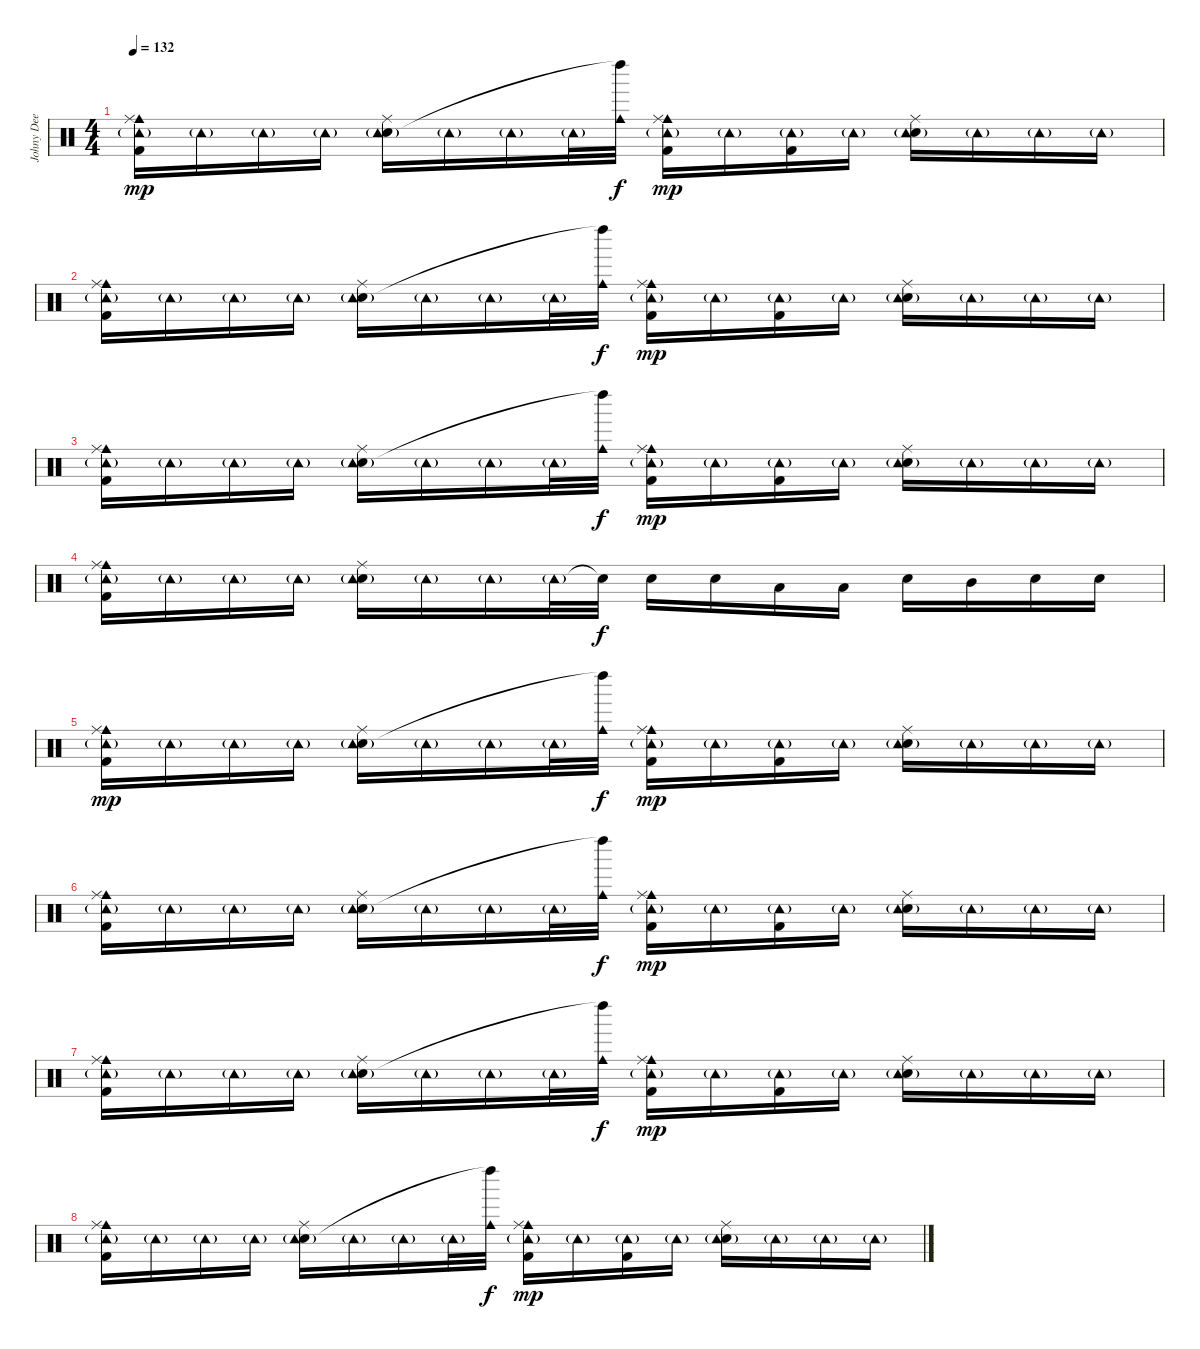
\track ("Johny Dee" "Johny Dee") {instrument percussion}
\staff {score}
\articulation defaults
\ts (4 4)
\tempo 132
\clef neutral
\ks c
("Cowbell medium (hit)" "Ride (middle)" "Tambourine (hit)"{g} "Kick (hit) 2").16{dy mp} "Tambourine (hit)"{g}.16 "Tambourine (hit)"{g}.16 "Tambourine (hit)"{g}.16 ("Ride (middle)" "Snare (hit) 2" "Tambourine (hit)"{g}).16 "Tambourine (hit)"{g}.16 "Tambourine (hit)"{g}.16 "Tambourine (hit)"{g}.32 ("Cowbell medium (hit)" "Left Maraca (hit)"{t}).32{dy f} ("Cowbell medium (hit)" "Ride (middle)" "Tambourine (hit)"{g} "Kick (hit) 2").16{dy mp} "Tambourine (hit)"{g}.16 ("Tambourine (hit)"{g} "Kick (hit) 2").16 "Tambourine (hit)"{g}.16 ("Ride (middle)" "Snare (hit) 2" "Tambourine (hit)"{g}).16 "Tambourine (hit)"{g}.16 "Tambourine (hit)"{g}.16 "Tambourine (hit)"{g}.16 |
("Cowbell medium (hit)" "Ride (middle)" "Tambourine (hit)"{g} "Kick (hit) 2").16 "Tambourine (hit)"{g}.16 "Tambourine (hit)"{g}.16 "Tambourine (hit)"{g}.16 ("Ride (middle)" "Snare (hit) 2" "Tambourine (hit)"{g}).16 "Tambourine (hit)"{g}.16 "Tambourine (hit)"{g}.16 "Tambourine (hit)"{g}.32 ("Cowbell medium (hit)" "Left Maraca (hit)"{t}).32{dy f} ("Cowbell medium (hit)" "Ride (middle)" "Tambourine (hit)"{g} "Kick (hit) 2").16{dy mp} "Tambourine (hit)"{g}.16 ("Tambourine (hit)"{g} "Kick (hit) 2").16 "Tambourine (hit)"{g}.16 ("Ride (middle)" "Snare (hit) 2" "Tambourine (hit)"{g}).16 "Tambourine (hit)"{g}.16 "Tambourine (hit)"{g}.16 "Tambourine (hit)"{g}.16 |
("Cowbell medium (hit)" "Ride (middle)" "Tambourine (hit)"{g} "Kick (hit) 2").16 "Tambourine (hit)"{g}.16 "Tambourine (hit)"{g}.16 "Tambourine (hit)"{g}.16 ("Ride (middle)" "Snare (hit) 2" "Tambourine (hit)"{g}).16 "Tambourine (hit)"{g}.16 "Tambourine (hit)"{g}.16 "Tambourine (hit)"{g}.32 ("Cowbell medium (hit)" "Left Maraca (hit)"{t}).32{dy f} ("Cowbell medium (hit)" "Ride (middle)" "Tambourine (hit)"{g} "Kick (hit) 2").16{dy mp} "Tambourine (hit)"{g}.16 ("Tambourine (hit)"{g} "Kick (hit) 2").16 "Tambourine (hit)"{g}.16 ("Ride (middle)" "Snare (hit) 2" "Tambourine (hit)"{g}).16 "Tambourine (hit)"{g}.16 "Tambourine (hit)"{g}.16 "Tambourine (hit)"{g}.16 |
("Cowbell medium (hit)" "Ride (middle)" "Tambourine (hit)"{g} "Kick (hit) 2").16 "Tambourine (hit)"{g}.16 "Tambourine (hit)"{g}.16 "Tambourine (hit)"{g}.16 ("Ride (middle)" "Snare (hit) 2" "Tambourine (hit)"{g}).16 "Tambourine (hit)"{g}.16 "Tambourine (hit)"{g}.16 "Tambourine (hit)"{g}.32 "Snare (hit)"{t}.32{dy f} "Snare (hit) 2".16 "Snare (hit) 2".16 "Low Tom (hit)".16 "Low Tom (hit)".16 "Snare (hit) 2".16 "Mid Tom (hit)".16 "Snare (hit) 2".16 "Snare (hit) 2".16 |
("Cowbell medium (hit)" "Ride (middle)" "Tambourine (hit)"{g} "Kick (hit) 2").16{dy mp} "Tambourine (hit)"{g}.16 "Tambourine (hit)"{g}.16 "Tambourine (hit)"{g}.16 ("Ride (middle)" "Snare (hit) 2" "Tambourine (hit)"{g}).16 "Tambourine (hit)"{g}.16 "Tambourine (hit)"{g}.16 "Tambourine (hit)"{g}.32 ("Cowbell medium (hit)" "Left Maraca (hit)"{t}).32{dy f} ("Cowbell medium (hit)" "Ride (middle)" "Tambourine (hit)"{g} "Kick (hit) 2").16{dy mp} "Tambourine (hit)"{g}.16 ("Tambourine (hit)"{g} "Kick (hit) 2").16 "Tambourine (hit)"{g}.16 ("Ride (middle)" "Snare (hit) 2" "Tambourine (hit)"{g}).16 "Tambourine (hit)"{g}.16 "Tambourine (hit)"{g}.16 "Tambourine (hit)"{g}.16 |
("Cowbell medium (hit)" "Ride (middle)" "Tambourine (hit)"{g} "Kick (hit) 2").16 "Tambourine (hit)"{g}.16 "Tambourine (hit)"{g}.16 "Tambourine (hit)"{g}.16 ("Ride (middle)" "Snare (hit) 2" "Tambourine (hit)"{g}).16 "Tambourine (hit)"{g}.16 "Tambourine (hit)"{g}.16 "Tambourine (hit)"{g}.32 ("Cowbell medium (hit)" "Left Maraca (hit)"{t}).32{dy f} ("Cowbell medium (hit)" "Ride (middle)" "Tambourine (hit)"{g} "Kick (hit) 2").16{dy mp} "Tambourine (hit)"{g}.16 ("Tambourine (hit)"{g} "Kick (hit) 2").16 "Tambourine (hit)"{g}.16 ("Ride (middle)" "Snare (hit) 2" "Tambourine (hit)"{g}).16 "Tambourine (hit)"{g}.16 "Tambourine (hit)"{g}.16 "Tambourine (hit)"{g}.16 |
("Cowbell medium (hit)" "Ride (middle)" "Tambourine (hit)"{g} "Kick (hit) 2").16 "Tambourine (hit)"{g}.16 "Tambourine (hit)"{g}.16 "Tambourine (hit)"{g}.16 ("Ride (middle)" "Snare (hit) 2" "Tambourine (hit)"{g}).16 "Tambourine (hit)"{g}.16 "Tambourine (hit)"{g}.16 "Tambourine (hit)"{g}.32 ("Cowbell medium (hit)" "Left Maraca (hit)"{t}).32{dy f} ("Cowbell medium (hit)" "Ride (middle)" "Tambourine (hit)"{g} "Kick (hit) 2").16{dy mp} "Tambourine (hit)"{g}.16 ("Tambourine (hit)"{g} "Kick (hit) 2").16 "Tambourine (hit)"{g}.16 ("Ride (middle)" "Snare (hit) 2" "Tambourine (hit)"{g}).16 "Tambourine (hit)"{g}.16 "Tambourine (hit)"{g}.16 "Tambourine (hit)"{g}.16 |
("Cowbell medium (hit)" "Ride (middle)" "Tambourine (hit)"{g} "Kick (hit) 2").16 "Tambourine (hit)"{g}.16 "Tambourine (hit)"{g}.16 "Tambourine (hit)"{g}.16 ("Ride (middle)" "Snare (hit) 2" "Tambourine (hit)"{g}).16 "Tambourine (hit)"{g}.16 "Tambourine (hit)"{g}.16 "Tambourine (hit)"{g}.32 ("Cowbell medium (hit)" "Left Maraca (hit)"{t}).32{dy f} ("Cowbell medium (hit)" "Ride (middle)" "Tambourine (hit)"{g} "Kick (hit) 2").16{dy mp} "Tambourine (hit)"{g}.16 ("Tambourine (hit)"{g} "Kick (hit) 2").16 "Tambourine (hit)"{g}.16 ("Ride (middle)" "Snare (hit) 2" "Tambourine (hit)"{g}).16 "Tambourine (hit)"{g}.16 "Tambourine (hit)"{g}.16 "Tambourine (hit)"{g}.16
